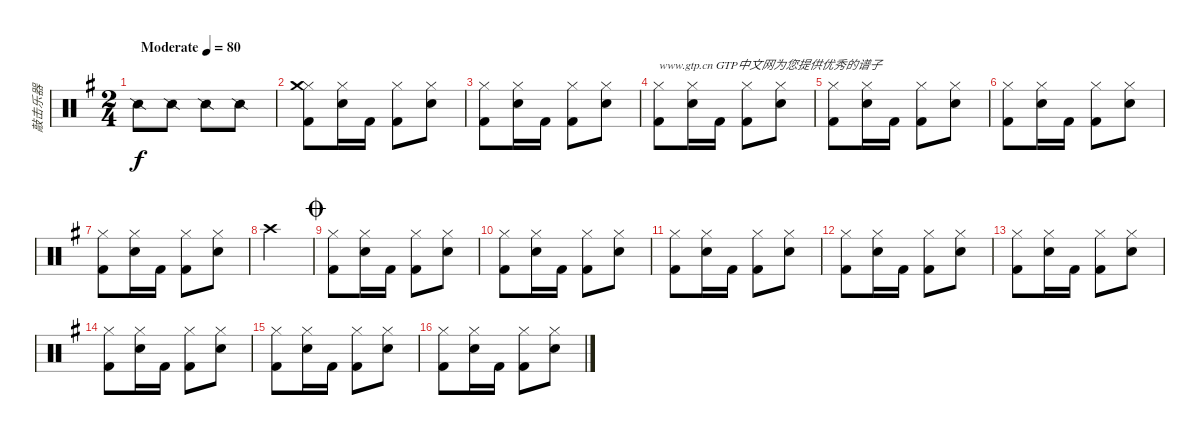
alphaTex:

\track ("敲击乐器" "敲击乐器") {instrument percussion}
\staff {score}
\articulation defaults
\ts (2 4)
\tempo (80 "Moderate")
\clef neutral
\ks g "Snare (side stick) 2".8{dy f} "Snare (side stick) 2".8 "Snare (side stick) 2".8 "Snare (side stick) 2".8
|
("Kick (hit) 2" "Hi-Hat (closed)" "Crash medium (hit)").8 ("Electric Snare (hit)" "Hi-Hat (closed)").16 "Kick (hit) 2".16 ("Kick (hit) 2" "Hi-Hat (closed)").8 ("Electric Snare (hit)" "Hi-Hat (closed)").8 |
("Kick (hit) 2" "Hi-Hat (closed)").8 ("Electric Snare (hit)" "Hi-Hat (closed)").16 "Kick (hit) 2".16 ("Kick (hit) 2" "Hi-Hat (closed)").8 ("Electric Snare (hit)" "Hi-Hat (closed)").8 |
("Kick (hit) 2" "Hi-Hat (closed)").8{txt "www.gtp.cn GTP中文网为您提供优秀的谱子"} ("Electric Snare (hit)" "Hi-Hat (closed)").16 "Kick (hit) 2".16 ("Kick (hit) 2" "Hi-Hat (closed)").8 ("Electric Snare (hit)" "Hi-Hat (closed)").8 |
("Kick (hit) 2" "Hi-Hat (closed)").8 ("Electric Snare (hit)" "Hi-Hat (closed)").16 "Kick (hit) 2".16 ("Kick (hit) 2" "Hi-Hat (closed)").8 ("Electric Snare (hit)" "Hi-Hat (closed)").8 |
("Kick (hit) 2" "Hi-Hat (closed)").8 ("Electric Snare (hit)" "Hi-Hat (closed)").16 "Kick (hit) 2".16 ("Kick (hit) 2" "Hi-Hat (closed)").8 ("Electric Snare (hit)" "Hi-Hat (closed)").8 |
("Kick (hit) 2" "Hi-Hat (closed)").8 ("Electric Snare (hit)" "Hi-Hat (closed)").16 "Kick (hit) 2".16 ("Kick (hit) 2" "Hi-Hat (closed)").8 ("Electric Snare (hit)" "Hi-Hat (closed)").8 |
"Crash high (hit)".2 |
\jump coda
("Kick (hit) 2" "Hi-Hat (closed)").8 ("Electric Snare (hit)" "Hi-Hat (closed)").16 "Kick (hit) 2".16 ("Kick (hit) 2" "Hi-Hat (closed)").8 ("Electric Snare (hit)" "Hi-Hat (closed)").8 |
("Kick (hit) 2" "Hi-Hat (closed)").8 ("Electric Snare (hit)" "Hi-Hat (closed)").16 "Kick (hit) 2".16 ("Kick (hit) 2" "Hi-Hat (closed)").8 ("Electric Snare (hit)" "Hi-Hat (closed)").8 |
("Kick (hit) 2" "Hi-Hat (closed)").8 ("Electric Snare (hit)" "Hi-Hat (closed)").16 "Kick (hit) 2".16 ("Kick (hit) 2" "Hi-Hat (closed)").8 ("Electric Snare (hit)" "Hi-Hat (closed)").8 |
("Kick (hit) 2" "Hi-Hat (closed)").8 ("Electric Snare (hit)" "Hi-Hat (closed)").16 "Kick (hit) 2".16 ("Kick (hit) 2" "Hi-Hat (closed)").8 ("Electric Snare (hit)" "Hi-Hat (closed)").8 |
("Kick (hit) 2" "Hi-Hat (closed)").8 ("Electric Snare (hit)" "Hi-Hat (closed)").16 "Kick (hit) 2".16 ("Kick (hit) 2" "Hi-Hat (closed)").8 ("Electric Snare (hit)" "Hi-Hat (closed)").8 |
("Kick (hit) 2" "Hi-Hat (closed)").8 ("Electric Snare (hit)" "Hi-Hat (closed)").16 "Kick (hit) 2".16 ("Kick (hit) 2" "Hi-Hat (closed)").8 ("Electric Snare (hit)" "Hi-Hat (closed)").8 |
("Kick (hit) 2" "Hi-Hat (closed)").8 ("Electric Snare (hit)" "Hi-Hat (closed)").16 "Kick (hit) 2".16 ("Kick (hit) 2" "Hi-Hat (closed)").8 ("Electric Snare (hit)" "Hi-Hat (closed)").8 |
("Kick (hit) 2" "Hi-Hat (closed)").8 ("Electric Snare (hit)" "Hi-Hat (closed)").16 "Kick (hit) 2".16 ("Kick (hit) 2" "Hi-Hat (closed)").8 ("Electric Snare (hit)" "Hi-Hat (closed)").8
